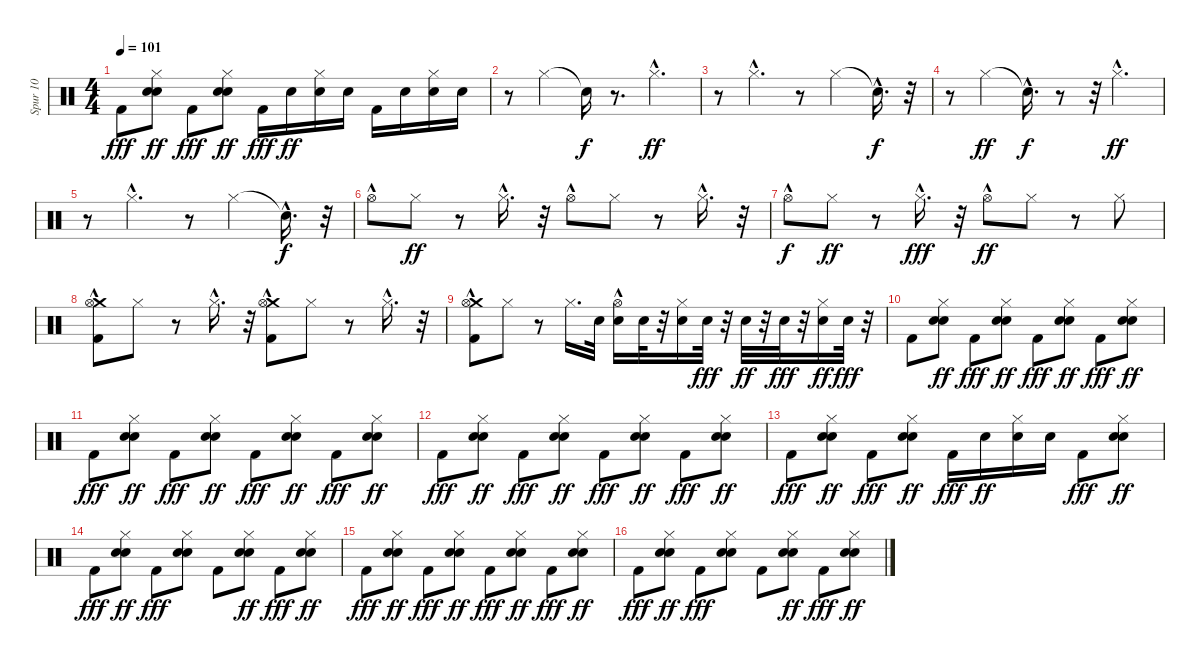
\track ("Spur 10" "Spur 10") {instrument percussion}
\staff {score}
\articulation defaults
\ts (4 4)
\tempo 101
\clef neutral
\ks c "Kick (hit) 2".8{dy fff}
("Snare (hit) 2" "Hi-Hat (closed)" "Snare (hit) 2").8{dy ff} "Kick (hit) 2".8{dy fff} ("Snare (hit) 2" "Hi-Hat (closed)" "Snare (hit) 2").8{dy ff} "Kick (hit) 2".16{dy fff} "Snare (hit) 2".16{dy ff} ("Hi-Hat (closed)" "Snare (hit) 2").16 "Snare (hit) 2".16 "Kick (hit) 2".16 "Snare (hit) 2".16 ("Hi-Hat (closed)" "Snare (hit) 2").16 "Snare (hit) 2".16 |
r.8 "Hi-Hat (closed)".4 "Snare (hit)"{t}.16{dy f} r.8{d} "Hi-Hat (closed)"{hac}.4{d dy ff} |
r.8 "Hi-Hat (closed)"{hac}.4{d} r.8 "Hi-Hat (closed)".4 "Snare (hit)"{hac t}.16{d dy f} r.32 |
r.8 "Hi-Hat (closed)".4{dy ff} "Snare (hit)"{hac t}.16{d dy f} r.8 r.32 "Hi-Hat (closed)"{hac}.4{d dy ff} |
r.8 "Hi-Hat (closed)"{hac}.4{d} r.8 "Hi-Hat (closed)".4 "Snare (hit)"{hac t}.16{d dy f} r.32 |
"Hi-Hat (open)"{hac}.8 "Hi-Hat (closed)".8{dy ff} r.8 "Hi-Hat (closed)"{hac}.16{d} r.32 "Hi-Hat (open)"{hac}.8 "Hi-Hat (closed)".8 r.8 "Hi-Hat (closed)"{hac}.16{d} r.32 |
"Hi-Hat (open)"{hac}.8{dy f} "Hi-Hat (closed)".8{dy ff} r.8 "Hi-Hat (closed)"{hac}.16{d dy fff} r.32 "Hi-Hat (open)"{hac}.8{dy ff} "Hi-Hat (closed)".8 r.8 "Hi-Hat (closed)".8 |
("Kick (hit) 2" "Crash medium (hit)" "Hi-Hat (open)"{hac}).8 "Hi-Hat (closed)".8 r.8 "Hi-Hat (closed)"{hac}.16{d} r.32 ("Kick (hit) 2" "Crash medium (hit)" "Hi-Hat (open)"{hac}).8 "Hi-Hat (closed)".8 r.8 "Hi-Hat (closed)"{hac}.16{d} r.32 |
("Kick (hit) 2"{hac} "Crash medium (hit)"{hac} "Hi-Hat (open)"{hac}).8 "Hi-Hat (closed)".8 r.8 "Hi-Hat (closed)".16{d} "Snare (hit) 2".32 ("Snare (hit) 2" "Hi-Hat (open)"{hac}).16 "Snare (hit) 2".32 r.32 ("Snare (hit) 2" "Hi-Hat (closed)").16 "Snare (hit) 2".32{dy fff} r.32 "Snare (hit) 2".32{dy ff} r.32 "Snare (hit) 2".32{dy fff} r.32 ("Snare (hit) 2" "Hi-Hat (closed)").16{dy ff} "Snare (hit) 2".32{dy fff} r.32 |
"Kick (hit) 2".8 ("Snare (hit) 2" "Hi-Hat (closed)" "Snare (hit) 2").8{dy ff} "Kick (hit) 2".8{dy fff} ("Snare (hit) 2" "Snare (hit) 2" "Hi-Hat (closed)").8{dy ff} "Kick (hit) 2".8{dy fff} ("Snare (hit) 2" "Snare (hit) 2" "Hi-Hat (closed)").8{dy ff} "Kick (hit) 2".8{dy fff} ("Snare (hit) 2" "Snare (hit) 2" "Hi-Hat (closed)").8{dy ff} |
"Kick (hit) 2".8{dy fff} ("Snare (hit) 2" "Snare (hit) 2" "Hi-Hat (closed)").8{dy ff} "Kick (hit) 2".8{dy fff} ("Snare (hit) 2" "Snare (hit) 2" "Hi-Hat (closed)").8{dy ff} "Kick (hit) 2".8{dy fff} ("Snare (hit) 2" "Snare (hit) 2" "Hi-Hat (closed)").8{dy ff} "Kick (hit) 2".8{dy fff} ("Snare (hit) 2" "Snare (hit) 2" "Hi-Hat (closed)").8{dy ff} |
"Kick (hit) 2".8{dy fff} ("Snare (hit) 2" "Snare (hit) 2" "Hi-Hat (closed)").8{dy ff} "Kick (hit) 2".8{dy fff} ("Snare (hit) 2" "Snare (hit) 2" "Hi-Hat (closed)").8{dy ff} "Kick (hit) 2".8{dy fff} ("Snare (hit) 2" "Snare (hit) 2" "Hi-Hat (closed)").8{dy ff} "Kick (hit) 2".8{dy fff} ("Snare (hit) 2" "Hi-Hat (closed)" "Snare (hit) 2").8{dy ff} |
"Kick (hit) 2".8{dy fff} ("Snare (hit) 2" "Snare (hit) 2" "Hi-Hat (closed)").8{dy ff} "Kick (hit) 2".8{dy fff} ("Snare (hit) 2" "Snare (hit) 2" "Hi-Hat (closed)").8{dy ff} "Kick (hit) 2".16{dy fff} "Snare (hit) 2".16{dy ff} ("Snare (hit) 2" "Hi-Hat (closed)").16 "Snare (hit) 2".16 "Kick (hit) 2".8{dy fff} ("Snare (hit) 2" "Snare (hit) 2" "Hi-Hat (closed)").8{dy ff} |
"Kick (hit) 2".8{dy fff} ("Snare (hit) 2" "Hi-Hat (closed)" "Snare (hit) 2").8{dy ff} "Kick (hit) 2".8{dy fff} ("Snare (hit) 2" "Hi-Hat (closed)" "Snare (hit) 2").8 "Kick (hit) 2".8 ("Snare (hit) 2" "Snare (hit) 2" "Hi-Hat (closed)").8{dy ff} "Kick (hit) 2".8{dy fff} ("Snare (hit) 2" "Snare (hit) 2" "Hi-Hat (closed)").8{dy ff} |
"Kick (hit) 2".8{dy fff} ("Snare (hit) 2" "Snare (hit) 2" "Hi-Hat (closed)").8{dy ff} "Kick (hit) 2".8{dy fff} ("Snare (hit) 2" "Snare (hit) 2" "Hi-Hat (closed)").8{dy ff} "Kick (hit) 2".8{dy fff} ("Snare (hit) 2" "Snare (hit) 2" "Hi-Hat (closed)").8{dy ff} "Kick (hit) 2".8{dy fff} ("Snare (hit) 2" "Hi-Hat (closed)" "Snare (hit) 2").8{dy ff} |
"Kick (hit) 2".8{dy fff} ("Snare (hit) 2" "Hi-Hat (closed)" "Snare (hit) 2").8{dy ff} "Kick (hit) 2".8{dy fff} ("Snare (hit) 2" "Snare (hit) 2" "Hi-Hat (closed)").8 "Kick (hit) 2".8 ("Snare (hit) 2" "Hi-Hat (closed)" "Snare (hit) 2").8{dy ff} "Kick (hit) 2".8{dy fff} ("Snare (hit) 2" "Snare (hit) 2" "Hi-Hat (closed)").8{dy ff}
